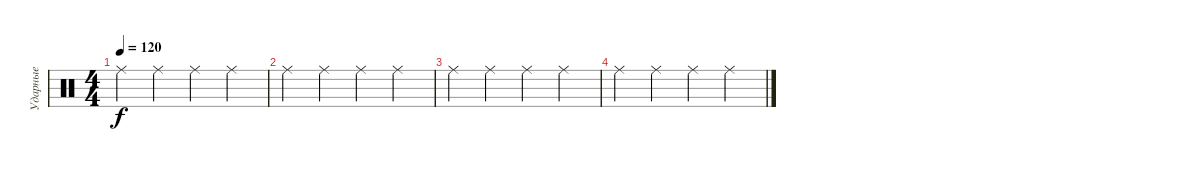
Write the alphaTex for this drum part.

\track ("Ударные" "Ударные") {instrument percussion}
\staff {score}
\articulation defaults
\ts (4 4)
\tempo 120
\clef neutral
\ks c "Ride (middle)".4{dy f} "Ride (middle)".4 "Ride (middle)".4 "Ride (middle)".4
|
"Ride (middle)".4 "Ride (middle)".4 "Ride (middle)".4 "Ride (middle)".4 |
"Ride (middle)".4 "Ride (middle)".4 "Ride (middle)".4 "Ride (middle)".4 |
"Ride (middle)".4 "Ride (middle)".4 "Ride (middle)".4 "Ride (middle)".4
